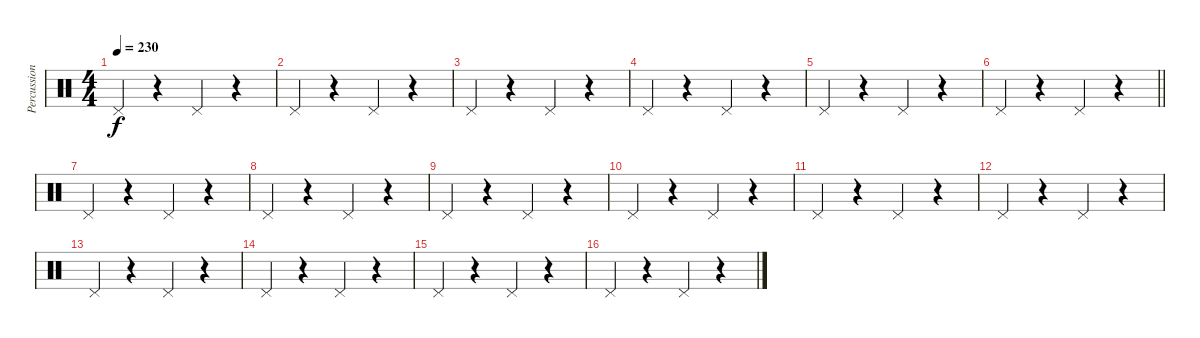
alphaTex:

\track ("Percussion" "Percussion") {instrument percussion}
\staff {score}
\articulation defaults
\ts (4 4)
\tempo 230
\clef neutral
\ks c "Pedal Hi-Hat (hit)".4{dy f}
r.4 "Pedal Hi-Hat (hit)".4 r.4 |
"Pedal Hi-Hat (hit)".4 r.4 "Pedal Hi-Hat (hit)".4 r.4 |
"Pedal Hi-Hat (hit)".4 r.4 "Pedal Hi-Hat (hit)".4 r.4 |
"Pedal Hi-Hat (hit)".4 r.4 "Pedal Hi-Hat (hit)".4 r.4 |
"Pedal Hi-Hat (hit)".4 r.4 "Pedal Hi-Hat (hit)".4 r.4 |
\barLineRight lightlight "Pedal Hi-Hat (hit)".4
r.4 "Pedal Hi-Hat (hit)".4 r.4 |
\section ("" "")
"Pedal Hi-Hat (hit)".4 r.4 "Pedal Hi-Hat (hit)".4 r.4 |
"Pedal Hi-Hat (hit)".4 r.4 "Pedal Hi-Hat (hit)".4 r.4 |
"Pedal Hi-Hat (hit)".4 r.4 "Pedal Hi-Hat (hit)".4 r.4 |
"Pedal Hi-Hat (hit)".4 r.4 "Pedal Hi-Hat (hit)".4 r.4 |
"Pedal Hi-Hat (hit)".4 r.4 "Pedal Hi-Hat (hit)".4 r.4 |
"Pedal Hi-Hat (hit)".4 r.4 "Pedal Hi-Hat (hit)".4 r.4 |
"Pedal Hi-Hat (hit)".4 r.4 "Pedal Hi-Hat (hit)".4 r.4 |
"Pedal Hi-Hat (hit)".4 r.4 "Pedal Hi-Hat (hit)".4 r.4 |
"Pedal Hi-Hat (hit)".4 r.4 "Pedal Hi-Hat (hit)".4 r.4 |
"Pedal Hi-Hat (hit)".4 r.4 "Pedal Hi-Hat (hit)".4 r.4
